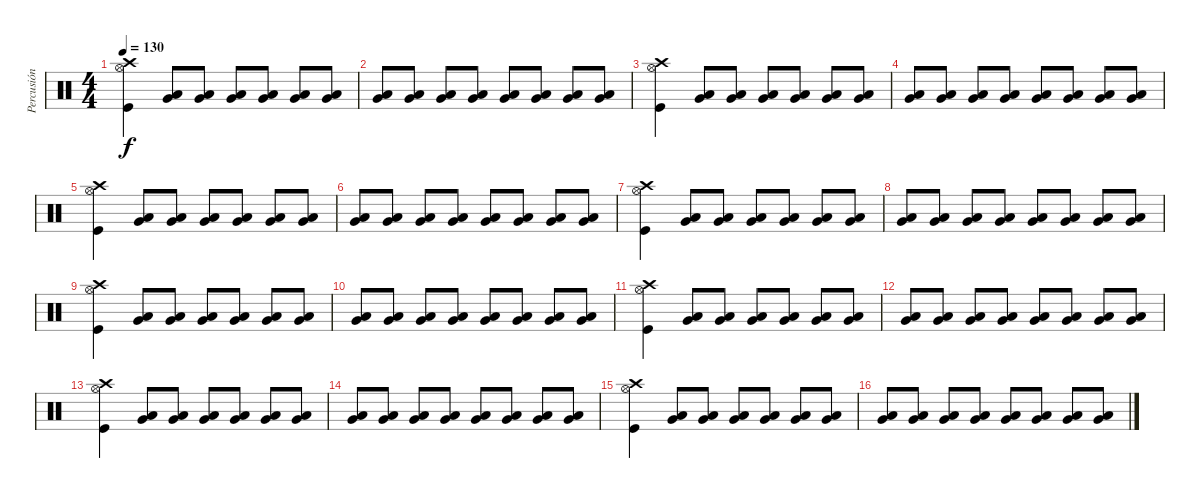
\track ("Percusión" "Percusión") {instrument percussion}
\staff {score}
\articulation defaults
\ts (4 4)
\tempo 130
\clef neutral
\ks c
("Kick (hit)" "Hi-Hat (open)" "Crash high (hit)").4{dy f} ("Low Tom (hit)" "Very Low Tom (hit)").8 ("Low Tom (hit)" "Very Low Tom (hit)").8 ("Low Tom (hit)" "Very Low Tom (hit)").8 ("Low Tom (hit)" "Very Low Tom (hit)").8 ("Low Tom (hit)" "Very Low Tom (hit)").8 ("Low Tom (hit)" "Very Low Tom (hit)").8 |
("Low Tom (hit)" "Very Low Tom (hit)").8 ("Low Tom (hit)" "Very Low Tom (hit)").8 ("Low Tom (hit)" "Very Low Tom (hit)").8 ("Low Tom (hit)" "Very Low Tom (hit)").8 ("Low Tom (hit)" "Very Low Tom (hit)").8 ("Low Tom (hit)" "Very Low Tom (hit)").8 ("Low Tom (hit)" "Very Low Tom (hit)").8 ("Low Tom (hit)" "Very Low Tom (hit)").8 |
("Kick (hit)" "Hi-Hat (open)" "Crash high (hit)").4 ("Low Tom (hit)" "Very Low Tom (hit)").8 ("Low Tom (hit)" "Very Low Tom (hit)").8 ("Low Tom (hit)" "Very Low Tom (hit)").8 ("Low Tom (hit)" "Very Low Tom (hit)").8 ("Low Tom (hit)" "Very Low Tom (hit)").8 ("Low Tom (hit)" "Very Low Tom (hit)").8 |
("Low Tom (hit)" "Very Low Tom (hit)").8 ("Low Tom (hit)" "Very Low Tom (hit)").8 ("Low Tom (hit)" "Very Low Tom (hit)").8 ("Low Tom (hit)" "Very Low Tom (hit)").8 ("Low Tom (hit)" "Very Low Tom (hit)").8 ("Low Tom (hit)" "Very Low Tom (hit)").8 ("Low Tom (hit)" "Very Low Tom (hit)").8 ("Low Tom (hit)" "Very Low Tom (hit)").8 |
("Kick (hit)" "Hi-Hat (open)" "Crash high (hit)").4 ("Low Tom (hit)" "Very Low Tom (hit)").8 ("Low Tom (hit)" "Very Low Tom (hit)").8 ("Low Tom (hit)" "Very Low Tom (hit)").8 ("Low Tom (hit)" "Very Low Tom (hit)").8 ("Low Tom (hit)" "Very Low Tom (hit)").8 ("Low Tom (hit)" "Very Low Tom (hit)").8 |
("Low Tom (hit)" "Very Low Tom (hit)").8 ("Low Tom (hit)" "Very Low Tom (hit)").8 ("Low Tom (hit)" "Very Low Tom (hit)").8 ("Low Tom (hit)" "Very Low Tom (hit)").8 ("Low Tom (hit)" "Very Low Tom (hit)").8 ("Low Tom (hit)" "Very Low Tom (hit)").8 ("Low Tom (hit)" "Very Low Tom (hit)").8 ("Low Tom (hit)" "Very Low Tom (hit)").8 |
("Kick (hit)" "Hi-Hat (open)" "Crash high (hit)").4 ("Low Tom (hit)" "Very Low Tom (hit)").8 ("Low Tom (hit)" "Very Low Tom (hit)").8 ("Low Tom (hit)" "Very Low Tom (hit)").8 ("Low Tom (hit)" "Very Low Tom (hit)").8 ("Low Tom (hit)" "Very Low Tom (hit)").8 ("Low Tom (hit)" "Very Low Tom (hit)").8 |
("Low Tom (hit)" "Very Low Tom (hit)").8 ("Low Tom (hit)" "Very Low Tom (hit)").8 ("Low Tom (hit)" "Very Low Tom (hit)").8 ("Low Tom (hit)" "Very Low Tom (hit)").8 ("Low Tom (hit)" "Very Low Tom (hit)").8 ("Low Tom (hit)" "Very Low Tom (hit)").8 ("Low Tom (hit)" "Very Low Tom (hit)").8 ("Low Tom (hit)" "Very Low Tom (hit)").8 |
("Kick (hit)" "Hi-Hat (open)" "Crash high (hit)").4 ("Low Tom (hit)" "Very Low Tom (hit)").8 ("Low Tom (hit)" "Very Low Tom (hit)").8 ("Low Tom (hit)" "Very Low Tom (hit)").8 ("Low Tom (hit)" "Very Low Tom (hit)").8 ("Low Tom (hit)" "Very Low Tom (hit)").8 ("Low Tom (hit)" "Very Low Tom (hit)").8 |
("Low Tom (hit)" "Very Low Tom (hit)").8 ("Low Tom (hit)" "Very Low Tom (hit)").8 ("Low Tom (hit)" "Very Low Tom (hit)").8 ("Low Tom (hit)" "Very Low Tom (hit)").8 ("Low Tom (hit)" "Very Low Tom (hit)").8 ("Low Tom (hit)" "Very Low Tom (hit)").8 ("Low Tom (hit)" "Very Low Tom (hit)").8 ("Low Tom (hit)" "Very Low Tom (hit)").8 |
("Kick (hit)" "Hi-Hat (open)" "Crash high (hit)").4 ("Low Tom (hit)" "Very Low Tom (hit)").8 ("Low Tom (hit)" "Very Low Tom (hit)").8 ("Low Tom (hit)" "Very Low Tom (hit)").8 ("Low Tom (hit)" "Very Low Tom (hit)").8 ("Low Tom (hit)" "Very Low Tom (hit)").8 ("Low Tom (hit)" "Very Low Tom (hit)").8 |
("Low Tom (hit)" "Very Low Tom (hit)").8 ("Low Tom (hit)" "Very Low Tom (hit)").8 ("Low Tom (hit)" "Very Low Tom (hit)").8 ("Low Tom (hit)" "Very Low Tom (hit)").8 ("Low Tom (hit)" "Very Low Tom (hit)").8 ("Low Tom (hit)" "Very Low Tom (hit)").8 ("Low Tom (hit)" "Very Low Tom (hit)").8 ("Low Tom (hit)" "Very Low Tom (hit)").8 |
("Kick (hit)" "Hi-Hat (open)" "Crash high (hit)").4 ("Low Tom (hit)" "Very Low Tom (hit)").8 ("Low Tom (hit)" "Very Low Tom (hit)").8 ("Low Tom (hit)" "Very Low Tom (hit)").8 ("Low Tom (hit)" "Very Low Tom (hit)").8 ("Low Tom (hit)" "Very Low Tom (hit)").8 ("Low Tom (hit)" "Very Low Tom (hit)").8 |
("Low Tom (hit)" "Very Low Tom (hit)").8 ("Low Tom (hit)" "Very Low Tom (hit)").8 ("Low Tom (hit)" "Very Low Tom (hit)").8 ("Low Tom (hit)" "Very Low Tom (hit)").8 ("Low Tom (hit)" "Very Low Tom (hit)").8 ("Low Tom (hit)" "Very Low Tom (hit)").8 ("Low Tom (hit)" "Very Low Tom (hit)").8 ("Low Tom (hit)" "Very Low Tom (hit)").8 |
("Kick (hit)" "Hi-Hat (open)" "Crash high (hit)").4 ("Low Tom (hit)" "Very Low Tom (hit)").8 ("Low Tom (hit)" "Very Low Tom (hit)").8 ("Low Tom (hit)" "Very Low Tom (hit)").8 ("Low Tom (hit)" "Very Low Tom (hit)").8 ("Low Tom (hit)" "Very Low Tom (hit)").8 ("Low Tom (hit)" "Very Low Tom (hit)").8 |
("Low Tom (hit)" "Very Low Tom (hit)").8 ("Low Tom (hit)" "Very Low Tom (hit)").8 ("Low Tom (hit)" "Very Low Tom (hit)").8 ("Low Tom (hit)" "Very Low Tom (hit)").8 ("Low Tom (hit)" "Very Low Tom (hit)").8 ("Low Tom (hit)" "Very Low Tom (hit)").8 ("Low Tom (hit)" "Very Low Tom (hit)").8 ("Low Tom (hit)" "Very Low Tom (hit)").8
